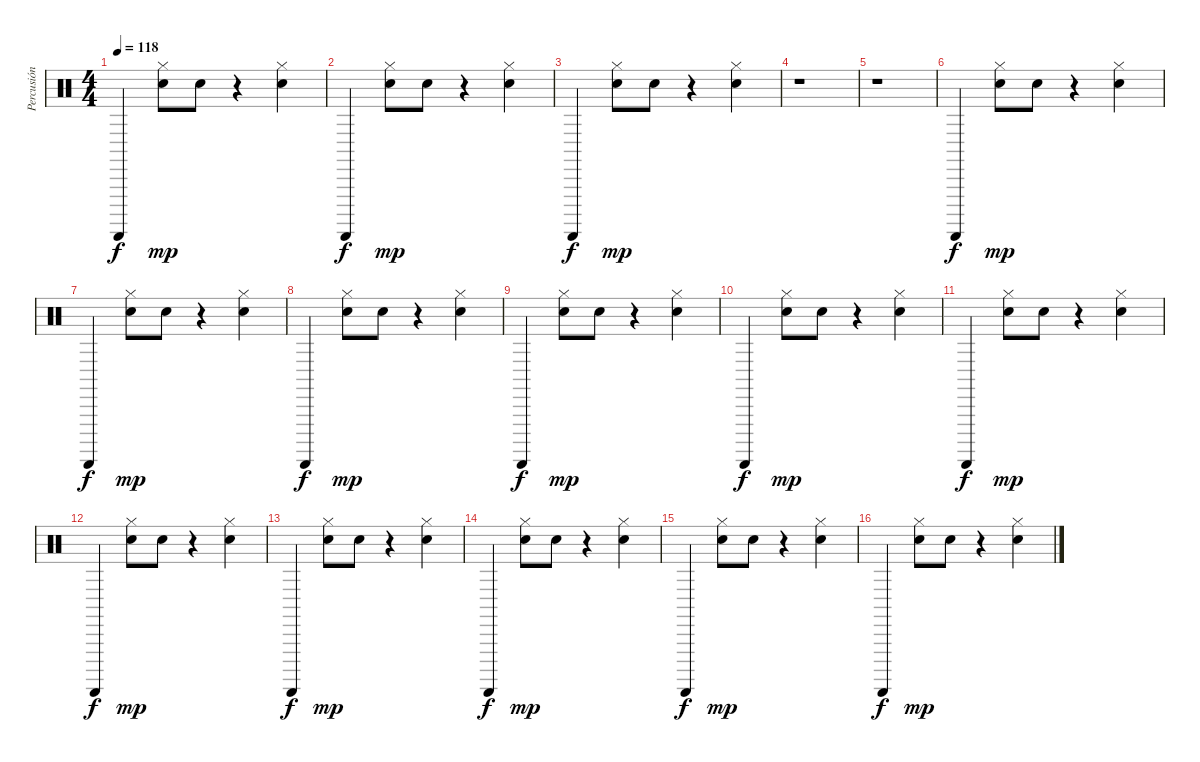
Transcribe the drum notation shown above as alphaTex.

\track ("Percusión" "Percusión") {instrument percussion}
\staff {score}
\articulation defaults
\ts (4 4)
\tempo 118
\clef neutral
\ks c "Guiro (scrap-return)".4{dy f}
("Snare (hit) 2" "Hi-Hat (closed)").8{dy mp} "Snare (hit) 2".8 r.4 ("Snare (hit) 2" "Hi-Hat (closed)").4 |
"Guiro (scrap-return)".4{dy f} ("Snare (hit) 2" "Hi-Hat (closed)").8{dy mp} "Snare (hit) 2".8 r.4 ("Snare (hit) 2" "Hi-Hat (closed)").4 |
"Guiro (scrap-return)".4{dy f} ("Snare (hit) 2" "Hi-Hat (closed)").8{dy mp} "Snare (hit) 2".8 r.4 ("Snare (hit) 2" "Hi-Hat (closed)").4 |
r.1 |
r.1 |
"Guiro (scrap-return)".4{dy f} ("Snare (hit) 2" "Hi-Hat (closed)").8{dy mp} "Snare (hit) 2".8 r.4 ("Snare (hit) 2" "Hi-Hat (closed)").4 |
"Guiro (scrap-return)".4{dy f} ("Snare (hit) 2" "Hi-Hat (closed)").8{dy mp} "Snare (hit) 2".8 r.4 ("Snare (hit) 2" "Hi-Hat (closed)").4 |
"Guiro (scrap-return)".4{dy f} ("Snare (hit) 2" "Hi-Hat (closed)").8{dy mp} "Snare (hit) 2".8 r.4 ("Snare (hit) 2" "Hi-Hat (closed)").4 |
"Guiro (scrap-return)".4{dy f} ("Snare (hit) 2" "Hi-Hat (closed)").8{dy mp} "Snare (hit) 2".8 r.4 ("Snare (hit) 2" "Hi-Hat (closed)").4 |
"Guiro (scrap-return)".4{dy f} ("Snare (hit) 2" "Hi-Hat (closed)").8{dy mp} "Snare (hit) 2".8 r.4 ("Snare (hit) 2" "Hi-Hat (closed)").4 |
"Guiro (scrap-return)".4{dy f} ("Snare (hit) 2" "Hi-Hat (closed)").8{dy mp} "Snare (hit) 2".8 r.4 ("Snare (hit) 2" "Hi-Hat (closed)").4 |
"Guiro (scrap-return)".4{dy f} ("Snare (hit) 2" "Hi-Hat (closed)").8{dy mp} "Snare (hit) 2".8 r.4 ("Snare (hit) 2" "Hi-Hat (closed)").4 |
"Guiro (scrap-return)".4{dy f} ("Snare (hit) 2" "Hi-Hat (closed)").8{dy mp} "Snare (hit) 2".8 r.4 ("Snare (hit) 2" "Hi-Hat (closed)").4 |
"Guiro (scrap-return)".4{dy f} ("Snare (hit) 2" "Hi-Hat (closed)").8{dy mp} "Snare (hit) 2".8 r.4 ("Snare (hit) 2" "Hi-Hat (closed)").4 |
"Guiro (scrap-return)".4{dy f} ("Snare (hit) 2" "Hi-Hat (closed)").8{dy mp} "Snare (hit) 2".8 r.4 ("Snare (hit) 2" "Hi-Hat (closed)").4 |
"Guiro (scrap-return)".4{dy f} ("Snare (hit) 2" "Hi-Hat (closed)").8{dy mp} "Snare (hit) 2".8 r.4 ("Snare (hit) 2" "Hi-Hat (closed)").4
